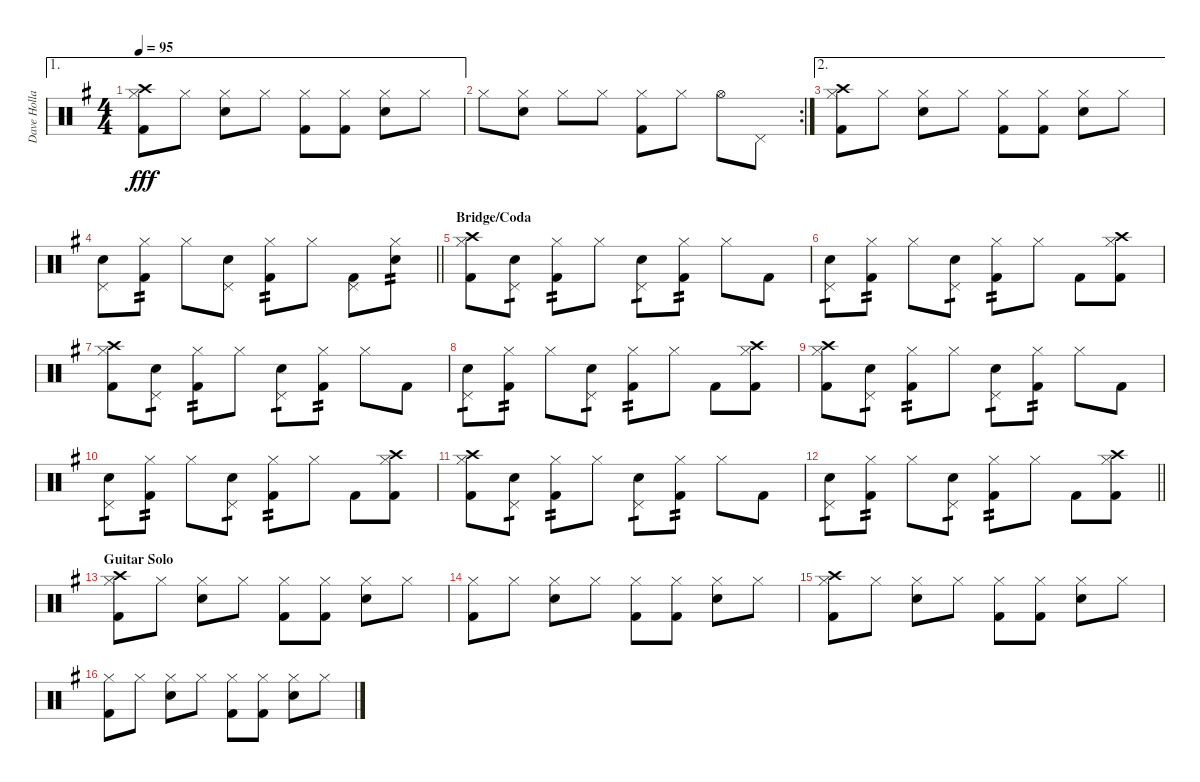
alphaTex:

\track ("Dave Holland" "Dave Holla") {instrument percussion}
\staff {score}
\articulation defaults
\ae 1
\ts (4 4)
\tempo 95
\clef neutral
\ks g
("Crash high (hit)" "Hi-Hat (closed)" "Kick (hit) 2").8{dy fff} "Hi-Hat (closed)".8 ("Hi-Hat (closed)" "Snare (hit) 2").8 "Hi-Hat (closed)".8 ("Hi-Hat (closed)" "Kick (hit) 2").8 ("Hi-Hat (closed)" "Kick (hit) 2").8 ("Hi-Hat (closed)" "Snare (hit) 2").8 "Hi-Hat (closed)".8 |
\rc 2 "Hi-Hat (closed)".8
("Hi-Hat (closed)" "Snare (hit) 2").8 "Hi-Hat (closed)".8 "Hi-Hat (closed)".8 ("Hi-Hat (closed)" "Kick (hit) 2").8 "Hi-Hat (closed)".8 "Hi-Hat (open)".8 "Pedal Hi-Hat (hit)".8 |
\ae 2
("Crash high (hit)" "Hi-Hat (closed)" "Kick (hit) 2").8 "Hi-Hat (closed)".8 ("Hi-Hat (closed)" "Snare (hit) 2").8 "Hi-Hat (closed)".8 ("Hi-Hat (closed)" "Kick (hit) 2").8 ("Hi-Hat (closed)" "Kick (hit) 2").8 ("Hi-Hat (closed)" "Snare (hit) 2").8 "Hi-Hat (closed)".8 |
\barLineRight lightlight
("Pedal Hi-Hat (hit)" "Snare (hit) 2").8 ("Hi-Hat (closed)" "Kick (hit) 2").8{tp 2} "Hi-Hat (closed)".8 ("Pedal Hi-Hat (hit)" "Snare (hit) 2").8 ("Hi-Hat (closed)" "Kick (hit) 2").8{tp 2} "Hi-Hat (closed)".8 ("Pedal Hi-Hat (hit)" "Kick (hit) 2").8 ("Hi-Hat (closed)" "Snare (hit) 2").8{tp 2} |
\section ("" "Bridge/Coda")
("Crash high (hit)" "Hi-Hat (closed)" "Kick (hit) 2").8 ("Pedal Hi-Hat (hit)" "Snare (hit) 2").8{tp 1} ("Hi-Hat (closed)" "Kick (hit) 2").8{tp 2} "Hi-Hat (closed)".8 ("Pedal Hi-Hat (hit)" "Snare (hit) 2").8{tp 1} ("Hi-Hat (closed)" "Kick (hit) 2").8{tp 2} "Hi-Hat (closed)".8 "Kick (hit) 2".8 |
("Pedal Hi-Hat (hit)" "Snare (hit) 2").8{tp 1} ("Hi-Hat (closed)" "Kick (hit) 2").8{tp 2} "Hi-Hat (closed)".8 ("Pedal Hi-Hat (hit)" "Snare (hit) 2").8{tp 1} ("Hi-Hat (closed)" "Kick (hit) 2").8{tp 2} "Hi-Hat (closed)".8 "Kick (hit) 2".8 ("Crash high (hit)" "Hi-Hat (closed)" "Kick (hit) 2").8 |
("Crash high (hit)" "Hi-Hat (closed)" "Kick (hit) 2").8 ("Pedal Hi-Hat (hit)" "Snare (hit) 2").8{tp 1} ("Hi-Hat (closed)" "Kick (hit) 2").8{tp 2} "Hi-Hat (closed)".8 ("Pedal Hi-Hat (hit)" "Snare (hit) 2").8{tp 1} ("Hi-Hat (closed)" "Kick (hit) 2").8{tp 2} "Hi-Hat (closed)".8 "Kick (hit) 2".8 |
("Pedal Hi-Hat (hit)" "Snare (hit) 2").8{tp 1} ("Hi-Hat (closed)" "Kick (hit) 2").8{tp 2} "Hi-Hat (closed)".8 ("Pedal Hi-Hat (hit)" "Snare (hit) 2").8{tp 1} ("Hi-Hat (closed)" "Kick (hit) 2").8{tp 2} "Hi-Hat (closed)".8 "Kick (hit) 2".8 ("Crash high (hit)" "Hi-Hat (closed)" "Kick (hit) 2").8 |
("Crash high (hit)" "Hi-Hat (closed)" "Kick (hit) 2").8 ("Pedal Hi-Hat (hit)" "Snare (hit) 2").8{tp 1} ("Hi-Hat (closed)" "Kick (hit) 2").8{tp 2} "Hi-Hat (closed)".8 ("Pedal Hi-Hat (hit)" "Snare (hit) 2").8{tp 1} ("Hi-Hat (closed)" "Kick (hit) 2").8{tp 2} "Hi-Hat (closed)".8 "Kick (hit) 2".8 |
("Pedal Hi-Hat (hit)" "Snare (hit) 2").8{tp 1} ("Hi-Hat (closed)" "Kick (hit) 2").8{tp 2} "Hi-Hat (closed)".8 ("Pedal Hi-Hat (hit)" "Snare (hit) 2").8{tp 1} ("Hi-Hat (closed)" "Kick (hit) 2").8{tp 2} "Hi-Hat (closed)".8 "Kick (hit) 2".8 ("Crash high (hit)" "Hi-Hat (closed)" "Kick (hit) 2").8 |
("Crash high (hit)" "Hi-Hat (closed)" "Kick (hit) 2").8 ("Pedal Hi-Hat (hit)" "Snare (hit) 2").8{tp 1} ("Hi-Hat (closed)" "Kick (hit) 2").8{tp 2} "Hi-Hat (closed)".8 ("Pedal Hi-Hat (hit)" "Snare (hit) 2").8{tp 1} ("Hi-Hat (closed)" "Kick (hit) 2").8{tp 2} "Hi-Hat (closed)".8 "Kick (hit) 2".8 |
\barLineRight lightlight
("Pedal Hi-Hat (hit)" "Snare (hit) 2").8{tp 1} ("Hi-Hat (closed)" "Kick (hit) 2").8{tp 2} "Hi-Hat (closed)".8 ("Pedal Hi-Hat (hit)" "Snare (hit) 2").8{tp 1} ("Hi-Hat (closed)" "Kick (hit) 2").8{tp 2} "Hi-Hat (closed)".8 "Kick (hit) 2".8 ("Crash high (hit)" "Hi-Hat (closed)" "Kick (hit) 2").8 |
\section ("" "Guitar Solo")
("Crash high (hit)" "Hi-Hat (closed)" "Kick (hit) 2").8 "Hi-Hat (closed)".8 ("Hi-Hat (closed)" "Snare (hit) 2").8 "Hi-Hat (closed)".8 ("Hi-Hat (closed)" "Kick (hit) 2").8 ("Hi-Hat (closed)" "Kick (hit) 2").8 ("Hi-Hat (closed)" "Snare (hit) 2").8 "Hi-Hat (closed)".8 |
("Hi-Hat (closed)" "Kick (hit) 2").8 "Hi-Hat (closed)".8 ("Hi-Hat (closed)" "Snare (hit) 2").8 "Hi-Hat (closed)".8 ("Hi-Hat (closed)" "Kick (hit) 2").8 ("Hi-Hat (closed)" "Kick (hit) 2").8 ("Hi-Hat (closed)" "Snare (hit) 2").8 "Hi-Hat (closed)".8 |
("Crash high (hit)" "Hi-Hat (closed)" "Kick (hit) 2").8 "Hi-Hat (closed)".8 ("Hi-Hat (closed)" "Snare (hit) 2").8 "Hi-Hat (closed)".8 ("Hi-Hat (closed)" "Kick (hit) 2").8 ("Hi-Hat (closed)" "Kick (hit) 2").8 ("Hi-Hat (closed)" "Snare (hit) 2").8 "Hi-Hat (closed)".8 |
("Hi-Hat (closed)" "Kick (hit) 2").8 "Hi-Hat (closed)".8 ("Hi-Hat (closed)" "Snare (hit) 2").8 "Hi-Hat (closed)".8 ("Hi-Hat (closed)" "Kick (hit) 2").8 ("Hi-Hat (closed)" "Kick (hit) 2").8 ("Hi-Hat (closed)" "Snare (hit) 2").8 "Hi-Hat (closed)".8
